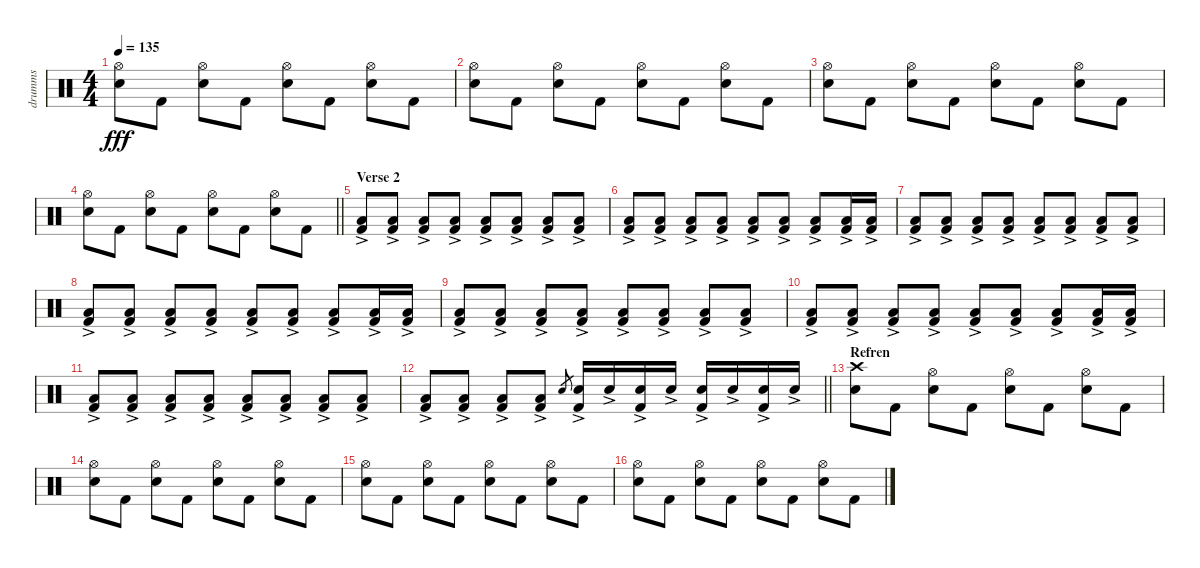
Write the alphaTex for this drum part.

\track ("drumms" "drumms") {instrument percussion}
\staff
\articulation defaults
\ts (4 4)
\tempo 135
\clef neutral
\ks c
("Hi-Hat (open)" "Snare (hit) 2").8{dy fff} "Kick (hit) 2".8 ("Hi-Hat (open)" "Snare (hit) 2").8 "Kick (hit) 2".8 ("Hi-Hat (open)" "Snare (hit) 2").8 "Kick (hit) 2".8 ("Hi-Hat (open)" "Snare (hit) 2").8 "Kick (hit) 2".8 |
("Hi-Hat (open)" "Snare (hit) 2").8 "Kick (hit) 2".8 ("Hi-Hat (open)" "Snare (hit) 2").8 "Kick (hit) 2".8 ("Hi-Hat (open)" "Snare (hit) 2").8 "Kick (hit) 2".8 ("Hi-Hat (open)" "Snare (hit) 2").8 "Kick (hit) 2".8 |
("Hi-Hat (open)" "Snare (hit) 2").8 "Kick (hit) 2".8 ("Hi-Hat (open)" "Snare (hit) 2").8 "Kick (hit) 2".8 ("Hi-Hat (open)" "Snare (hit) 2").8 "Kick (hit) 2".8 ("Hi-Hat (open)" "Snare (hit) 2").8 "Kick (hit) 2".8 |
\barLineRight lightlight
("Hi-Hat (open)" "Snare (hit) 2").8 "Kick (hit) 2".8 ("Hi-Hat (open)" "Snare (hit) 2").8 "Kick (hit) 2".8 ("Hi-Hat (open)" "Snare (hit) 2").8 "Kick (hit) 2".8 ("Hi-Hat (open)" "Snare (hit) 2").8 "Kick (hit) 2".8 |
\section ("" "Verse 2")
("Low Tom (hit)"{ac} "Kick (hit) 2"{ac}).8 ("Low Tom (hit)"{ac} "Kick (hit) 2"{ac}).8 ("Low Tom (hit)"{ac} "Kick (hit) 2"{ac}).8 ("Low Tom (hit)"{ac} "Kick (hit) 2"{ac}).8 ("Low Tom (hit)"{ac} "Kick (hit) 2"{ac}).8 ("Low Tom (hit)"{ac} "Kick (hit) 2"{ac}).8 ("Low Tom (hit)"{ac} "Kick (hit) 2"{ac}).8 ("Low Tom (hit)"{ac} "Kick (hit) 2"{ac}).8 |
("Low Tom (hit)"{ac} "Kick (hit) 2"{ac}).8 ("Low Tom (hit)"{ac} "Kick (hit) 2"{ac}).8 ("Low Tom (hit)"{ac} "Kick (hit) 2"{ac}).8 ("Low Tom (hit)"{ac} "Kick (hit) 2"{ac}).8 ("Low Tom (hit)"{ac} "Kick (hit) 2"{ac}).8 ("Low Tom (hit)"{ac} "Kick (hit) 2"{ac}).8 ("Low Tom (hit)"{ac} "Kick (hit) 2"{ac}).8 ("Low Tom (hit)"{ac} "Kick (hit) 2"{ac}).16 ("Low Tom (hit)"{ac} "Kick (hit) 2"{ac}).16 |
("Low Tom (hit)"{ac} "Kick (hit) 2"{ac}).8 ("Low Tom (hit)"{ac} "Kick (hit) 2"{ac}).8 ("Low Tom (hit)"{ac} "Kick (hit) 2"{ac}).8 ("Low Tom (hit)"{ac} "Kick (hit) 2"{ac}).8 ("Low Tom (hit)"{ac} "Kick (hit) 2"{ac}).8 ("Low Tom (hit)"{ac} "Kick (hit) 2"{ac}).8 ("Low Tom (hit)"{ac} "Kick (hit) 2"{ac}).8 ("Low Tom (hit)"{ac} "Kick (hit) 2"{ac}).8 |
("Low Tom (hit)"{ac} "Kick (hit) 2"{ac}).8 ("Low Tom (hit)"{ac} "Kick (hit) 2"{ac}).8 ("Low Tom (hit)"{ac} "Kick (hit) 2"{ac}).8 ("Low Tom (hit)"{ac} "Kick (hit) 2"{ac}).8 ("Low Tom (hit)"{ac} "Kick (hit) 2"{ac}).8 ("Low Tom (hit)"{ac} "Kick (hit) 2"{ac}).8 ("Low Tom (hit)"{ac} "Kick (hit) 2"{ac}).8 ("Low Tom (hit)"{ac} "Kick (hit) 2"{ac}).16 ("Low Tom (hit)"{ac} "Kick (hit) 2"{ac}).16 |
("Low Tom (hit)"{ac} "Kick (hit) 2"{ac}).8 ("Low Tom (hit)"{ac} "Kick (hit) 2"{ac}).8 ("Low Tom (hit)"{ac} "Kick (hit) 2"{ac}).8 ("Low Tom (hit)"{ac} "Kick (hit) 2"{ac}).8 ("Low Tom (hit)"{ac} "Kick (hit) 2"{ac}).8 ("Low Tom (hit)"{ac} "Kick (hit) 2"{ac}).8 ("Low Tom (hit)"{ac} "Kick (hit) 2"{ac}).8 ("Low Tom (hit)"{ac} "Kick (hit) 2"{ac}).8 |
("Low Tom (hit)"{ac} "Kick (hit) 2"{ac}).8 ("Low Tom (hit)"{ac} "Kick (hit) 2"{ac}).8 ("Low Tom (hit)"{ac} "Kick (hit) 2"{ac}).8 ("Low Tom (hit)"{ac} "Kick (hit) 2"{ac}).8 ("Low Tom (hit)"{ac} "Kick (hit) 2"{ac}).8 ("Low Tom (hit)"{ac} "Kick (hit) 2"{ac}).8 ("Low Tom (hit)"{ac} "Kick (hit) 2"{ac}).8 ("Low Tom (hit)"{ac} "Kick (hit) 2"{ac}).16 ("Low Tom (hit)"{ac} "Kick (hit) 2"{ac}).16 |
("Low Tom (hit)"{ac} "Kick (hit) 2"{ac}).8 ("Low Tom (hit)"{ac} "Kick (hit) 2"{ac}).8 ("Low Tom (hit)"{ac} "Kick (hit) 2"{ac}).8 ("Low Tom (hit)"{ac} "Kick (hit) 2"{ac}).8 ("Low Tom (hit)"{ac} "Kick (hit) 2"{ac}).8 ("Low Tom (hit)"{ac} "Kick (hit) 2"{ac}).8 ("Low Tom (hit)"{ac} "Kick (hit) 2"{ac}).8 ("Low Tom (hit)"{ac} "Kick (hit) 2"{ac}).8 |
\barLineRight lightlight
("Low Tom (hit)"{ac} "Kick (hit) 2"{ac}).8 ("Low Tom (hit)"{ac} "Kick (hit) 2"{ac}).8 ("Low Tom (hit)"{ac} "Kick (hit) 2"{ac}).8 ("Low Tom (hit)"{ac} "Kick (hit) 2"{ac}).8 "Snare (hit) 2".8{gr} ("Snare (hit) 2"{ac} "Kick (hit) 2").16 "Snare (hit) 2"{ac}.16 ("Snare (hit) 2"{ac} "Kick (hit) 2").16 "Snare (hit) 2"{ac}.16 ("Snare (hit) 2"{ac} "Kick (hit) 2").16 "Snare (hit) 2"{ac}.16 ("Snare (hit) 2"{ac} "Kick (hit) 2").16 "Snare (hit) 2"{ac}.16 |
\section ("" "Refren")
("Crash high (hit)" "Snare (hit) 2").8 "Kick (hit) 2".8 ("Hi-Hat (open)" "Snare (hit) 2").8 "Kick (hit) 2".8 ("Hi-Hat (open)" "Snare (hit) 2").8 "Kick (hit) 2".8 ("Hi-Hat (open)" "Snare (hit) 2").8 "Kick (hit) 2".8 |
("Hi-Hat (open)" "Snare (hit) 2").8 "Kick (hit) 2".8 ("Hi-Hat (open)" "Snare (hit) 2").8 "Kick (hit) 2".8 ("Hi-Hat (open)" "Snare (hit) 2").8 "Kick (hit) 2".8 ("Hi-Hat (open)" "Snare (hit) 2").8 "Kick (hit) 2".8 |
("Hi-Hat (open)" "Snare (hit) 2").8 "Kick (hit) 2".8 ("Hi-Hat (open)" "Snare (hit) 2").8 "Kick (hit) 2".8 ("Hi-Hat (open)" "Snare (hit) 2").8 "Kick (hit) 2".8 ("Hi-Hat (open)" "Snare (hit) 2").8 "Kick (hit) 2".8 |
("Hi-Hat (open)" "Snare (hit) 2").8 "Kick (hit) 2".8 ("Hi-Hat (open)" "Snare (hit) 2").8 "Kick (hit) 2".8 ("Hi-Hat (open)" "Snare (hit) 2").8 "Kick (hit) 2".8 ("Hi-Hat (open)" "Snare (hit) 2").8 "Kick (hit) 2".8
